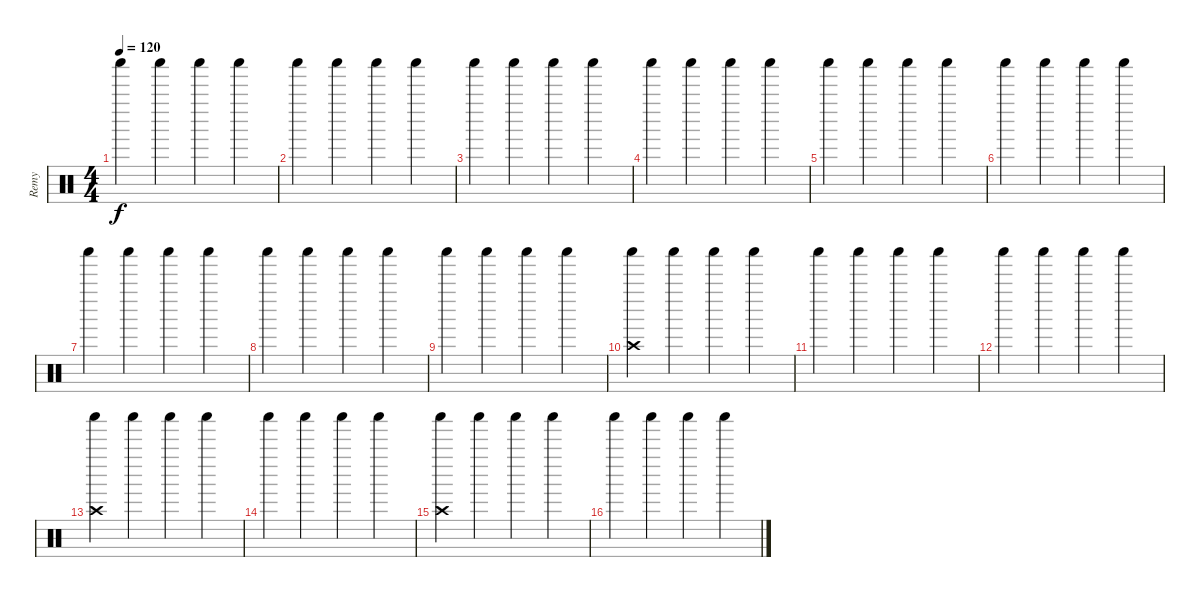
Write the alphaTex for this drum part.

\track ("Remy" "Remy") {instrument percussion}
\staff {score}
\articulation defaults
\ts (4 4)
\tempo 120
\clef neutral
\ks c "Shaker (hit)".4{dy f} "Shaker (hit)".4 "Shaker (hit)".4 "Shaker (hit)".4
|
"Shaker (hit)".4 "Shaker (hit)".4 "Shaker (hit)".4 "Shaker (hit)".4 |
"Shaker (hit)".4 "Shaker (hit)".4 "Shaker (hit)".4 "Shaker (hit)".4 |
"Shaker (hit)".4 "Shaker (hit)".4 "Shaker (hit)".4 "Shaker (hit)".4 |
"Shaker (hit)".4 "Shaker (hit)".4 "Shaker (hit)".4 "Shaker (hit)".4 |
"Shaker (hit)".4 "Shaker (hit)".4 "Shaker (hit)".4 "Shaker (hit)".4 |
"Shaker (hit)".4 "Shaker (hit)".4 "Shaker (hit)".4 "Shaker (hit)".4 |
"Shaker (hit)".4 "Shaker (hit)".4 "Shaker (hit)".4 "Shaker (hit)".4 |
"Shaker (hit)".4 "Shaker (hit)".4 "Shaker (hit)".4 "Shaker (hit)".4 |
("Shaker (hit)" "Crash high (hit)").4 "Shaker (hit)".4 "Shaker (hit)".4 "Shaker (hit)".4 |
"Shaker (hit)".4 "Shaker (hit)".4 "Shaker (hit)".4 "Shaker (hit)".4 |
"Shaker (hit)".4 "Shaker (hit)".4 "Shaker (hit)".4 "Shaker (hit)".4 |
("Shaker (hit)" "Crash high (hit)").4 "Shaker (hit)".4 "Shaker (hit)".4 "Shaker (hit)".4 |
"Shaker (hit)".4 "Shaker (hit)".4 "Shaker (hit)".4 "Shaker (hit)".4 |
("Shaker (hit)" "Crash high (hit)").4 "Shaker (hit)".4 "Shaker (hit)".4 "Shaker (hit)".4 |
"Shaker (hit)".4 "Shaker (hit)".4 "Shaker (hit)".4 "Shaker (hit)".4
